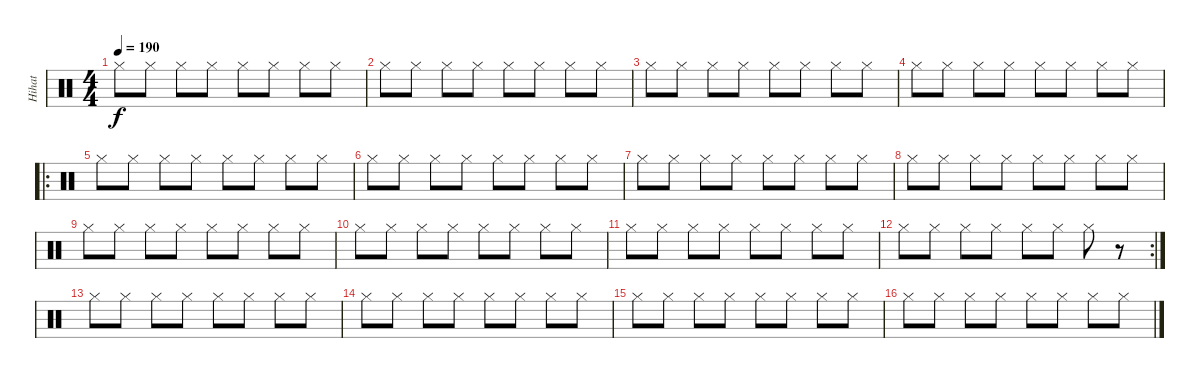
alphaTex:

\track ("Hihat" "Hihat") {instrument percussion}
\staff {score}
\articulation defaults
\ts (4 4)
\tempo 190
\clef neutral
\ks c "Hi-Hat (closed)".8{dy f} "Hi-Hat (closed)".8 "Hi-Hat (closed)".8 "Hi-Hat (closed)".8 "Hi-Hat (closed)".8 "Hi-Hat (closed)".8 "Hi-Hat (closed)".8 "Hi-Hat (closed)".8
|
"Hi-Hat (closed)".8 "Hi-Hat (closed)".8 "Hi-Hat (closed)".8 "Hi-Hat (closed)".8 "Hi-Hat (closed)".8 "Hi-Hat (closed)".8 "Hi-Hat (closed)".8 "Hi-Hat (closed)".8 |
"Hi-Hat (closed)".8 "Hi-Hat (closed)".8 "Hi-Hat (closed)".8 "Hi-Hat (closed)".8 "Hi-Hat (closed)".8 "Hi-Hat (closed)".8 "Hi-Hat (closed)".8 "Hi-Hat (closed)".8 |
"Hi-Hat (closed)".8 "Hi-Hat (closed)".8 "Hi-Hat (closed)".8 "Hi-Hat (closed)".8 "Hi-Hat (closed)".8 "Hi-Hat (closed)".8 "Hi-Hat (closed)".8 "Hi-Hat (closed)".8 |
\ro "Hi-Hat (closed)".8 "Hi-Hat (closed)".8 "Hi-Hat (closed)".8 "Hi-Hat (closed)".8 "Hi-Hat (closed)".8 "Hi-Hat (closed)".8 "Hi-Hat (closed)".8 "Hi-Hat (closed)".8
|
"Hi-Hat (closed)".8 "Hi-Hat (closed)".8 "Hi-Hat (closed)".8 "Hi-Hat (closed)".8 "Hi-Hat (closed)".8 "Hi-Hat (closed)".8 "Hi-Hat (closed)".8 "Hi-Hat (closed)".8 |
"Hi-Hat (closed)".8 "Hi-Hat (closed)".8 "Hi-Hat (closed)".8 "Hi-Hat (closed)".8 "Hi-Hat (closed)".8 "Hi-Hat (closed)".8 "Hi-Hat (closed)".8 "Hi-Hat (closed)".8 |
"Hi-Hat (closed)".8 "Hi-Hat (closed)".8 "Hi-Hat (closed)".8 "Hi-Hat (closed)".8 "Hi-Hat (closed)".8 "Hi-Hat (closed)".8 "Hi-Hat (closed)".8 "Hi-Hat (closed)".8 |
"Hi-Hat (closed)".8 "Hi-Hat (closed)".8 "Hi-Hat (closed)".8 "Hi-Hat (closed)".8 "Hi-Hat (closed)".8 "Hi-Hat (closed)".8 "Hi-Hat (closed)".8 "Hi-Hat (closed)".8 |
"Hi-Hat (closed)".8 "Hi-Hat (closed)".8 "Hi-Hat (closed)".8 "Hi-Hat (closed)".8 "Hi-Hat (closed)".8 "Hi-Hat (closed)".8 "Hi-Hat (closed)".8 "Hi-Hat (closed)".8 |
"Hi-Hat (closed)".8 "Hi-Hat (closed)".8 "Hi-Hat (closed)".8 "Hi-Hat (closed)".8 "Hi-Hat (closed)".8 "Hi-Hat (closed)".8 "Hi-Hat (closed)".8 "Hi-Hat (closed)".8 |
\rc 2 "Hi-Hat (closed)".8 "Hi-Hat (closed)".8 "Hi-Hat (closed)".8 "Hi-Hat (closed)".8 "Hi-Hat (closed)".8 "Hi-Hat (closed)".8 "Hi-Hat (closed)".8
r.8 |
"Hi-Hat (closed)".8 "Hi-Hat (closed)".8 "Hi-Hat (closed)".8 "Hi-Hat (closed)".8 "Hi-Hat (closed)".8 "Hi-Hat (closed)".8 "Hi-Hat (closed)".8 "Hi-Hat (closed)".8 |
"Hi-Hat (closed)".8 "Hi-Hat (closed)".8 "Hi-Hat (closed)".8 "Hi-Hat (closed)".8 "Hi-Hat (closed)".8 "Hi-Hat (closed)".8 "Hi-Hat (closed)".8 "Hi-Hat (closed)".8 |
"Hi-Hat (closed)".8 "Hi-Hat (closed)".8 "Hi-Hat (closed)".8 "Hi-Hat (closed)".8 "Hi-Hat (closed)".8 "Hi-Hat (closed)".8 "Hi-Hat (closed)".8 "Hi-Hat (closed)".8 |
"Hi-Hat (closed)".8 "Hi-Hat (closed)".8 "Hi-Hat (closed)".8 "Hi-Hat (closed)".8 "Hi-Hat (closed)".8 "Hi-Hat (closed)".8 "Hi-Hat (closed)".8 "Hi-Hat (closed)".8
